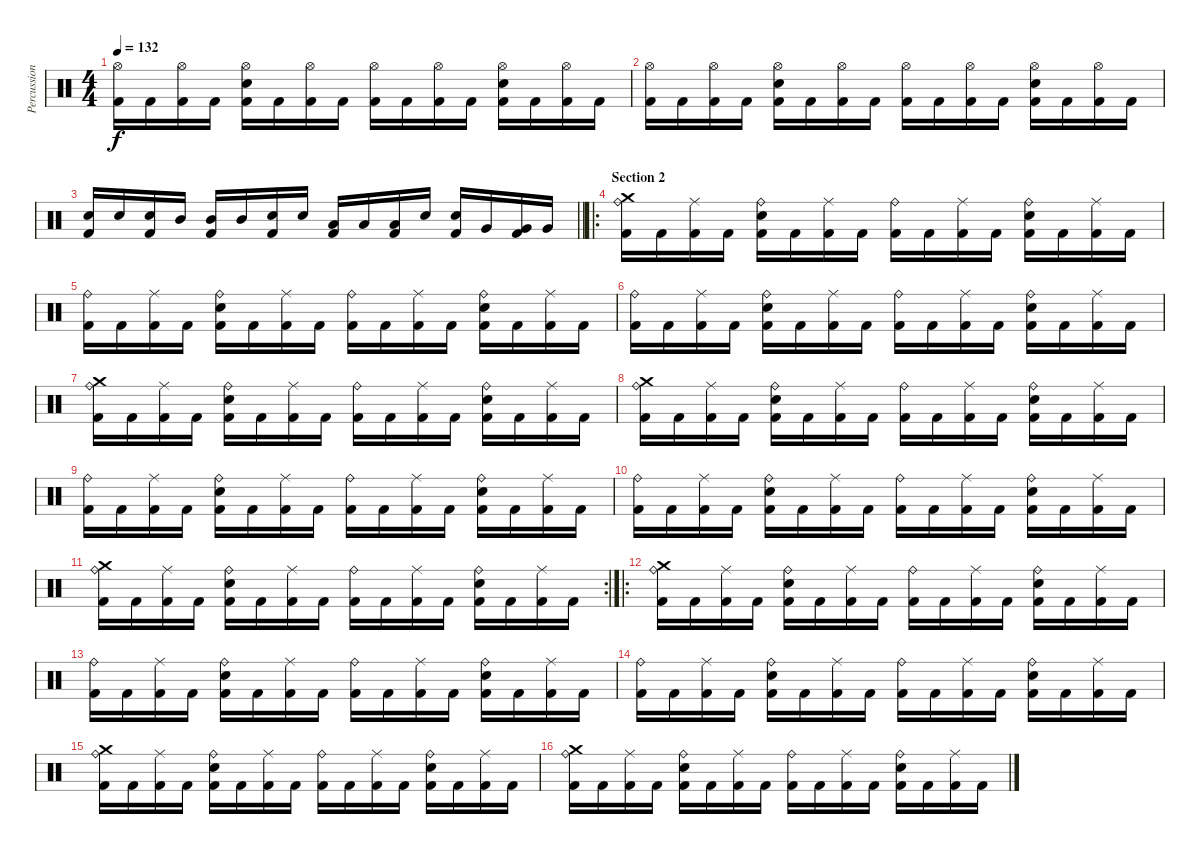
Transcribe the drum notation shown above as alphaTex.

\track ("Percussion" "Percussion") {instrument percussion}
\staff {score}
\articulation defaults
\ts (4 4)
\tempo 132
\clef neutral
\ks c
("Kick (hit) 2" "Hi-Hat (open)").16{dy f} "Kick (hit) 2".16 ("Kick (hit) 2" "Hi-Hat (open)").16 "Kick (hit) 2".16 ("Kick (hit) 2" "Electric Snare (hit)" "Hi-Hat (open)").16 "Kick (hit) 2".16 ("Kick (hit) 2" "Hi-Hat (open)").16 "Kick (hit) 2".16 ("Kick (hit) 2" "Hi-Hat (open)").16 "Kick (hit) 2".16 ("Kick (hit) 2" "Hi-Hat (open)").16 "Kick (hit) 2".16 ("Kick (hit) 2" "Electric Snare (hit)" "Hi-Hat (open)").16 "Kick (hit) 2".16 ("Kick (hit) 2" "Hi-Hat (open)").16 "Kick (hit) 2".16 |
("Kick (hit) 2" "Hi-Hat (open)").16 "Kick (hit) 2".16 ("Kick (hit) 2" "Hi-Hat (open)").16 "Kick (hit) 2".16 ("Kick (hit) 2" "Electric Snare (hit)" "Hi-Hat (open)").16 "Kick (hit) 2".16 ("Kick (hit) 2" "Hi-Hat (open)").16 "Kick (hit) 2".16 ("Kick (hit) 2" "Hi-Hat (open)").16 "Kick (hit) 2".16 ("Kick (hit) 2" "Hi-Hat (open)").16 "Kick (hit) 2".16 ("Kick (hit) 2" "Electric Snare (hit)" "Hi-Hat (open)").16 "Kick (hit) 2".16 ("Kick (hit) 2" "Hi-Hat (open)").16 "Kick (hit) 2".16 |
\barLineRight lightlight
("Electric Snare (hit)" "Kick (hit) 2").16 "Electric Snare (hit)".16 ("Electric Snare (hit)" "Kick (hit) 2").16 "Mid Tom (hit)".16 ("Mid Tom (hit)" "Kick (hit) 2").16 "Mid Tom (hit)".16 ("Electric Snare (hit)" "Kick (hit) 2").16 "Electric Snare (hit)".16 ("Low Tom (hit)" "Kick (hit) 2").16 "Low Tom (hit)".16 ("Low Tom (hit)" "Kick (hit) 2").16 "Electric Snare (hit)".16 ("Electric Snare (hit)" "Kick (hit) 2").16 "Very Low Tom (hit)".16 ("Very Low Tom (hit)" "Kick (hit) 2").16 "Very Low Tom (hit)".16 |
\ro
\section ("" "Section 2")
("Kick (hit) 2" "Ride (bell)" "Crash medium (hit)").16 "Kick (hit) 2".16 ("Kick (hit) 2" "Ride (middle)").16 "Kick (hit) 2".16 ("Kick (hit) 2" "Electric Snare (hit)" "Ride (bell)").16 "Kick (hit) 2".16 ("Kick (hit) 2" "Ride (middle)").16 "Kick (hit) 2".16 ("Kick (hit) 2" "Ride (bell)").16 "Kick (hit) 2".16 ("Kick (hit) 2" "Ride (middle)").16 "Kick (hit) 2".16 ("Kick (hit) 2" "Electric Snare (hit)" "Ride (bell)").16 "Kick (hit) 2".16 ("Kick (hit) 2" "Ride (middle)").16 "Kick (hit) 2".16 |
("Kick (hit) 2" "Ride (bell)").16 "Kick (hit) 2".16 ("Kick (hit) 2" "Ride (middle)").16 "Kick (hit) 2".16 ("Kick (hit) 2" "Electric Snare (hit)" "Ride (bell)").16 "Kick (hit) 2".16 ("Kick (hit) 2" "Ride (middle)").16 "Kick (hit) 2".16 ("Kick (hit) 2" "Ride (bell)").16 "Kick (hit) 2".16 ("Kick (hit) 2" "Ride (middle)").16 "Kick (hit) 2".16 ("Kick (hit) 2" "Electric Snare (hit)" "Ride (bell)").16 "Kick (hit) 2".16 ("Kick (hit) 2" "Ride (middle)").16 "Kick (hit) 2".16 |
("Kick (hit) 2" "Ride (bell)").16 "Kick (hit) 2".16 ("Kick (hit) 2" "Ride (middle)").16 "Kick (hit) 2".16 ("Kick (hit) 2" "Electric Snare (hit)" "Ride (bell)").16 "Kick (hit) 2".16 ("Kick (hit) 2" "Ride (middle)").16 "Kick (hit) 2".16 ("Kick (hit) 2" "Ride (bell)").16 "Kick (hit) 2".16 ("Kick (hit) 2" "Ride (middle)").16 "Kick (hit) 2".16 ("Kick (hit) 2" "Electric Snare (hit)" "Ride (bell)").16 "Kick (hit) 2".16 ("Kick (hit) 2" "Ride (middle)").16 "Kick (hit) 2".16 |
("Kick (hit) 2" "Ride (bell)" "Crash medium (hit)").16 "Kick (hit) 2".16 ("Kick (hit) 2" "Ride (middle)").16 "Kick (hit) 2".16 ("Kick (hit) 2" "Electric Snare (hit)" "Ride (bell)").16 "Kick (hit) 2".16 ("Kick (hit) 2" "Ride (middle)").16 "Kick (hit) 2".16 ("Kick (hit) 2" "Ride (bell)").16 "Kick (hit) 2".16 ("Kick (hit) 2" "Ride (middle)").16 "Kick (hit) 2".16 ("Kick (hit) 2" "Electric Snare (hit)" "Ride (bell)").16 "Kick (hit) 2".16 ("Kick (hit) 2" "Ride (middle)").16 "Kick (hit) 2".16 |
("Kick (hit) 2" "Ride (bell)" "Crash medium (hit)").16 "Kick (hit) 2".16 ("Kick (hit) 2" "Ride (middle)").16 "Kick (hit) 2".16 ("Kick (hit) 2" "Electric Snare (hit)" "Ride (bell)").16 "Kick (hit) 2".16 ("Kick (hit) 2" "Ride (middle)").16 "Kick (hit) 2".16 ("Kick (hit) 2" "Ride (bell)").16 "Kick (hit) 2".16 ("Kick (hit) 2" "Ride (middle)").16 "Kick (hit) 2".16 ("Kick (hit) 2" "Electric Snare (hit)" "Ride (bell)").16 "Kick (hit) 2".16 ("Kick (hit) 2" "Ride (middle)").16 "Kick (hit) 2".16 |
("Kick (hit) 2" "Ride (bell)").16 "Kick (hit) 2".16 ("Kick (hit) 2" "Ride (middle)").16 "Kick (hit) 2".16 ("Kick (hit) 2" "Electric Snare (hit)" "Ride (bell)").16 "Kick (hit) 2".16 ("Kick (hit) 2" "Ride (middle)").16 "Kick (hit) 2".16 ("Kick (hit) 2" "Ride (bell)").16 "Kick (hit) 2".16 ("Kick (hit) 2" "Ride (middle)").16 "Kick (hit) 2".16 ("Kick (hit) 2" "Electric Snare (hit)" "Ride (bell)").16 "Kick (hit) 2".16 ("Kick (hit) 2" "Ride (middle)").16 "Kick (hit) 2".16 |
("Kick (hit) 2" "Ride (bell)").16 "Kick (hit) 2".16 ("Kick (hit) 2" "Ride (middle)").16 "Kick (hit) 2".16 ("Kick (hit) 2" "Electric Snare (hit)" "Ride (bell)").16 "Kick (hit) 2".16 ("Kick (hit) 2" "Ride (middle)").16 "Kick (hit) 2".16 ("Kick (hit) 2" "Ride (bell)").16 "Kick (hit) 2".16 ("Kick (hit) 2" "Ride (middle)").16 "Kick (hit) 2".16 ("Kick (hit) 2" "Electric Snare (hit)" "Ride (bell)").16 "Kick (hit) 2".16 ("Kick (hit) 2" "Ride (middle)").16 "Kick (hit) 2".16 |
\rc 2
("Kick (hit) 2" "Ride (bell)" "Crash medium (hit)").16 "Kick (hit) 2".16 ("Kick (hit) 2" "Ride (middle)").16 "Kick (hit) 2".16 ("Kick (hit) 2" "Electric Snare (hit)" "Ride (bell)").16 "Kick (hit) 2".16 ("Kick (hit) 2" "Ride (middle)").16 "Kick (hit) 2".16 ("Kick (hit) 2" "Ride (bell)").16 "Kick (hit) 2".16 ("Kick (hit) 2" "Ride (middle)").16 "Kick (hit) 2".16 ("Kick (hit) 2" "Electric Snare (hit)" "Ride (bell)").16 "Kick (hit) 2".16 ("Kick (hit) 2" "Ride (middle)").16 "Kick (hit) 2".16 |
\ro
("Kick (hit) 2" "Ride (bell)" "Crash medium (hit)").16 "Kick (hit) 2".16 ("Kick (hit) 2" "Ride (middle)").16 "Kick (hit) 2".16 ("Kick (hit) 2" "Electric Snare (hit)" "Ride (bell)").16 "Kick (hit) 2".16 ("Kick (hit) 2" "Ride (middle)").16 "Kick (hit) 2".16 ("Kick (hit) 2" "Ride (bell)").16 "Kick (hit) 2".16 ("Kick (hit) 2" "Ride (middle)").16 "Kick (hit) 2".16 ("Kick (hit) 2" "Electric Snare (hit)" "Ride (bell)").16 "Kick (hit) 2".16 ("Kick (hit) 2" "Ride (middle)").16 "Kick (hit) 2".16 |
("Kick (hit) 2" "Ride (bell)").16 "Kick (hit) 2".16 ("Kick (hit) 2" "Ride (middle)").16 "Kick (hit) 2".16 ("Kick (hit) 2" "Electric Snare (hit)" "Ride (bell)").16 "Kick (hit) 2".16 ("Kick (hit) 2" "Ride (middle)").16 "Kick (hit) 2".16 ("Kick (hit) 2" "Ride (bell)").16 "Kick (hit) 2".16 ("Kick (hit) 2" "Ride (middle)").16 "Kick (hit) 2".16 ("Kick (hit) 2" "Electric Snare (hit)" "Ride (bell)").16 "Kick (hit) 2".16 ("Kick (hit) 2" "Ride (middle)").16 "Kick (hit) 2".16 |
("Kick (hit) 2" "Ride (bell)").16 "Kick (hit) 2".16 ("Kick (hit) 2" "Ride (middle)").16 "Kick (hit) 2".16 ("Kick (hit) 2" "Electric Snare (hit)" "Ride (bell)").16 "Kick (hit) 2".16 ("Kick (hit) 2" "Ride (middle)").16 "Kick (hit) 2".16 ("Kick (hit) 2" "Ride (bell)").16 "Kick (hit) 2".16 ("Kick (hit) 2" "Ride (middle)").16 "Kick (hit) 2".16 ("Kick (hit) 2" "Electric Snare (hit)" "Ride (bell)").16 "Kick (hit) 2".16 ("Kick (hit) 2" "Ride (middle)").16 "Kick (hit) 2".16 |
("Kick (hit) 2" "Ride (bell)" "Crash medium (hit)").16 "Kick (hit) 2".16 ("Kick (hit) 2" "Ride (middle)").16 "Kick (hit) 2".16 ("Kick (hit) 2" "Electric Snare (hit)" "Ride (bell)").16 "Kick (hit) 2".16 ("Kick (hit) 2" "Ride (middle)").16 "Kick (hit) 2".16 ("Kick (hit) 2" "Ride (bell)").16 "Kick (hit) 2".16 ("Kick (hit) 2" "Ride (middle)").16 "Kick (hit) 2".16 ("Kick (hit) 2" "Electric Snare (hit)" "Ride (bell)").16 "Kick (hit) 2".16 ("Kick (hit) 2" "Ride (middle)").16 "Kick (hit) 2".16 |
("Kick (hit) 2" "Ride (bell)" "Crash medium (hit)").16 "Kick (hit) 2".16 ("Kick (hit) 2" "Ride (middle)").16 "Kick (hit) 2".16 ("Kick (hit) 2" "Electric Snare (hit)" "Ride (bell)").16 "Kick (hit) 2".16 ("Kick (hit) 2" "Ride (middle)").16 "Kick (hit) 2".16 ("Kick (hit) 2" "Ride (bell)").16 "Kick (hit) 2".16 ("Kick (hit) 2" "Ride (middle)").16 "Kick (hit) 2".16 ("Kick (hit) 2" "Electric Snare (hit)" "Ride (bell)").16 "Kick (hit) 2".16 ("Kick (hit) 2" "Ride (middle)").16 "Kick (hit) 2".16
